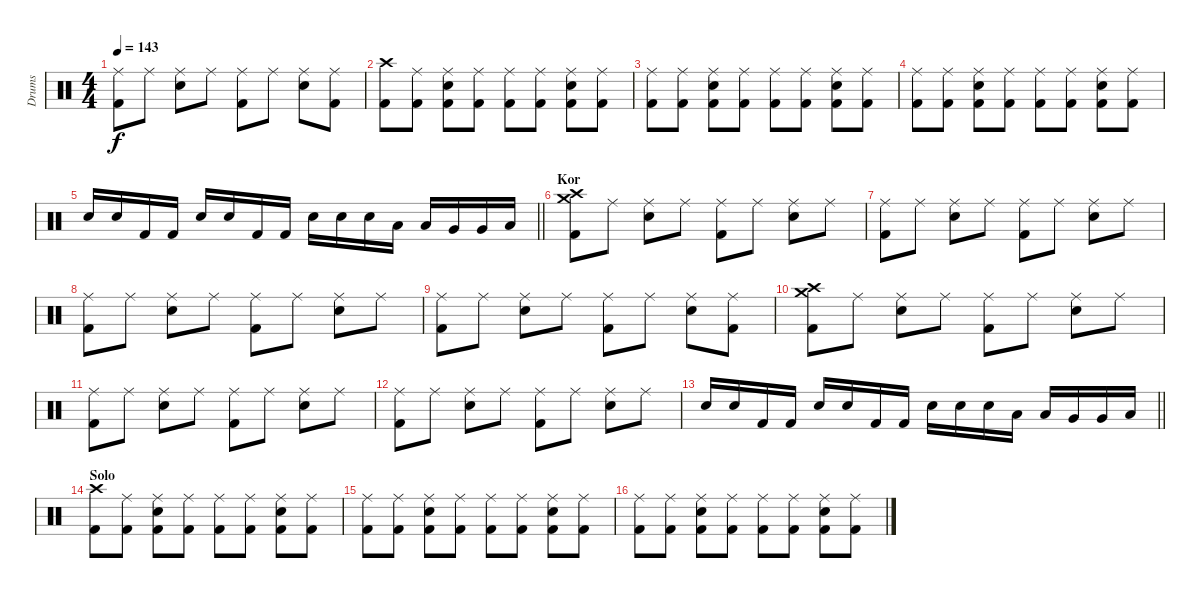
\track ("Drums" "Drums") {instrument percussion}
\staff {score}
\articulation defaults
\ts (4 4)
\tempo 143
\clef neutral
\ks c
("Ride (middle)" "Kick (hit) 2").8{dy f} "Ride (middle)".8 ("Ride (middle)" "Snare (hit) 2").8 "Ride (middle)".8 ("Ride (middle)" "Kick (hit) 2").8 "Ride (middle)".8 ("Ride (middle)" "Snare (hit) 2").8 ("Ride (middle)" "Kick (hit) 2").8 |
("Crash high (hit)" "Kick (hit) 2").8 ("Ride (middle)" "Kick (hit) 2").8 ("Ride (middle)" "Snare (hit) 2" "Kick (hit) 2").8 ("Ride (middle)" "Kick (hit) 2").8 ("Ride (middle)" "Kick (hit) 2").8 ("Ride (middle)" "Kick (hit) 2").8 ("Ride (middle)" "Snare (hit) 2" "Kick (hit) 2").8 ("Ride (middle)" "Kick (hit) 2").8 |
("Ride (middle)" "Kick (hit) 2").8 ("Ride (middle)" "Kick (hit) 2").8 ("Ride (middle)" "Snare (hit) 2" "Kick (hit) 2").8 ("Ride (middle)" "Kick (hit) 2").8 ("Ride (middle)" "Kick (hit) 2").8 ("Ride (middle)" "Kick (hit) 2").8 ("Ride (middle)" "Snare (hit) 2" "Kick (hit) 2").8 ("Ride (middle)" "Kick (hit) 2").8 |
("Ride (middle)" "Kick (hit) 2").8 ("Ride (middle)" "Kick (hit) 2").8 ("Ride (middle)" "Snare (hit) 2" "Kick (hit) 2").8 ("Ride (middle)" "Kick (hit) 2").8 ("Ride (middle)" "Kick (hit) 2").8 ("Ride (middle)" "Kick (hit) 2").8 ("Ride (middle)" "Snare (hit) 2" "Kick (hit) 2").8 ("Ride (middle)" "Kick (hit) 2").8 |
\barLineRight lightlight "Snare (hit) 2".16 "Snare (hit) 2".16 "Kick (hit) 2".16 "Kick (hit) 2".16 "Snare (hit) 2".16 "Snare (hit) 2".16 "Kick (hit) 2".16 "Kick (hit) 2".16 "Snare (hit) 2".16 "Snare (hit) 2".16 "Snare (hit) 2".16 "Low Tom (hit)".16 "Low Tom (hit)".16 "Very Low Tom (hit)".16 "Very Low Tom (hit)".16 "Low Tom (hit)".16
|
\section ("" "Kor")
("Crash medium (hit)" "Crash high (hit)" "Kick (hit) 2").8 "Ride (middle)".8 ("Ride (middle)" "Snare (hit) 2").8 "Ride (middle)".8 ("Ride (middle)" "Kick (hit) 2").8 "Ride (middle)".8 ("Ride (middle)" "Snare (hit) 2").8 "Ride (middle)".8 |
("Ride (middle)" "Kick (hit) 2").8 "Ride (middle)".8 ("Ride (middle)" "Snare (hit) 2").8 "Ride (middle)".8 ("Ride (middle)" "Kick (hit) 2").8 "Ride (middle)".8 ("Ride (middle)" "Snare (hit) 2").8 "Ride (middle)".8 |
("Ride (middle)" "Kick (hit) 2").8 "Ride (middle)".8 ("Ride (middle)" "Snare (hit) 2").8 "Ride (middle)".8 ("Ride (middle)" "Kick (hit) 2").8 "Ride (middle)".8 ("Ride (middle)" "Snare (hit) 2").8 "Ride (middle)".8 |
("Ride (middle)" "Kick (hit) 2").8 "Ride (middle)".8 ("Ride (middle)" "Snare (hit) 2").8 "Ride (middle)".8 ("Ride (middle)" "Kick (hit) 2").8 "Ride (middle)".8 ("Ride (middle)" "Snare (hit) 2").8 ("Ride (middle)" "Kick (hit) 2").8 |
("Crash medium (hit)" "Crash high (hit)" "Kick (hit) 2").8 "Ride (middle)".8 ("Ride (middle)" "Snare (hit) 2").8 "Ride (middle)".8 ("Ride (middle)" "Kick (hit) 2").8 "Ride (middle)".8 ("Ride (middle)" "Snare (hit) 2").8 "Ride (middle)".8 |
("Ride (middle)" "Kick (hit) 2").8 "Ride (middle)".8 ("Ride (middle)" "Snare (hit) 2").8 "Ride (middle)".8 ("Ride (middle)" "Kick (hit) 2").8 "Ride (middle)".8 ("Ride (middle)" "Snare (hit) 2").8 "Ride (middle)".8 |
("Ride (middle)" "Kick (hit) 2").8 "Ride (middle)".8 ("Ride (middle)" "Snare (hit) 2").8 "Ride (middle)".8 ("Ride (middle)" "Kick (hit) 2").8 "Ride (middle)".8 ("Ride (middle)" "Snare (hit) 2").8 "Ride (middle)".8 |
\barLineRight lightlight "Snare (hit) 2".16 "Snare (hit) 2".16 "Kick (hit) 2".16 "Kick (hit) 2".16 "Snare (hit) 2".16 "Snare (hit) 2".16 "Kick (hit) 2".16 "Kick (hit) 2".16 "Snare (hit) 2".16 "Snare (hit) 2".16 "Snare (hit) 2".16 "Low Tom (hit)".16 "Low Tom (hit)".16 "Very Low Tom (hit)".16 "Very Low Tom (hit)".16 "Low Tom (hit)".16
|
\section ("" "Solo")
("Crash high (hit)" "Kick (hit) 2").8 ("Ride (middle)" "Kick (hit) 2").8 ("Ride (middle)" "Snare (hit) 2" "Kick (hit) 2").8 ("Ride (middle)" "Kick (hit) 2").8 ("Ride (middle)" "Kick (hit) 2").8 ("Ride (middle)" "Kick (hit) 2").8 ("Ride (middle)" "Snare (hit) 2" "Kick (hit) 2").8 ("Ride (middle)" "Kick (hit) 2").8 |
("Ride (middle)" "Kick (hit) 2").8 ("Ride (middle)" "Kick (hit) 2").8 ("Ride (middle)" "Snare (hit) 2" "Kick (hit) 2").8 ("Ride (middle)" "Kick (hit) 2").8 ("Ride (middle)" "Kick (hit) 2").8 ("Ride (middle)" "Kick (hit) 2").8 ("Ride (middle)" "Snare (hit) 2" "Kick (hit) 2").8 ("Ride (middle)" "Kick (hit) 2").8 |
("Ride (middle)" "Kick (hit) 2").8 ("Ride (middle)" "Kick (hit) 2").8 ("Ride (middle)" "Snare (hit) 2" "Kick (hit) 2").8 ("Ride (middle)" "Kick (hit) 2").8 ("Ride (middle)" "Kick (hit) 2").8 ("Ride (middle)" "Kick (hit) 2").8 ("Ride (middle)" "Snare (hit) 2" "Kick (hit) 2").8 ("Ride (middle)" "Kick (hit) 2").8
